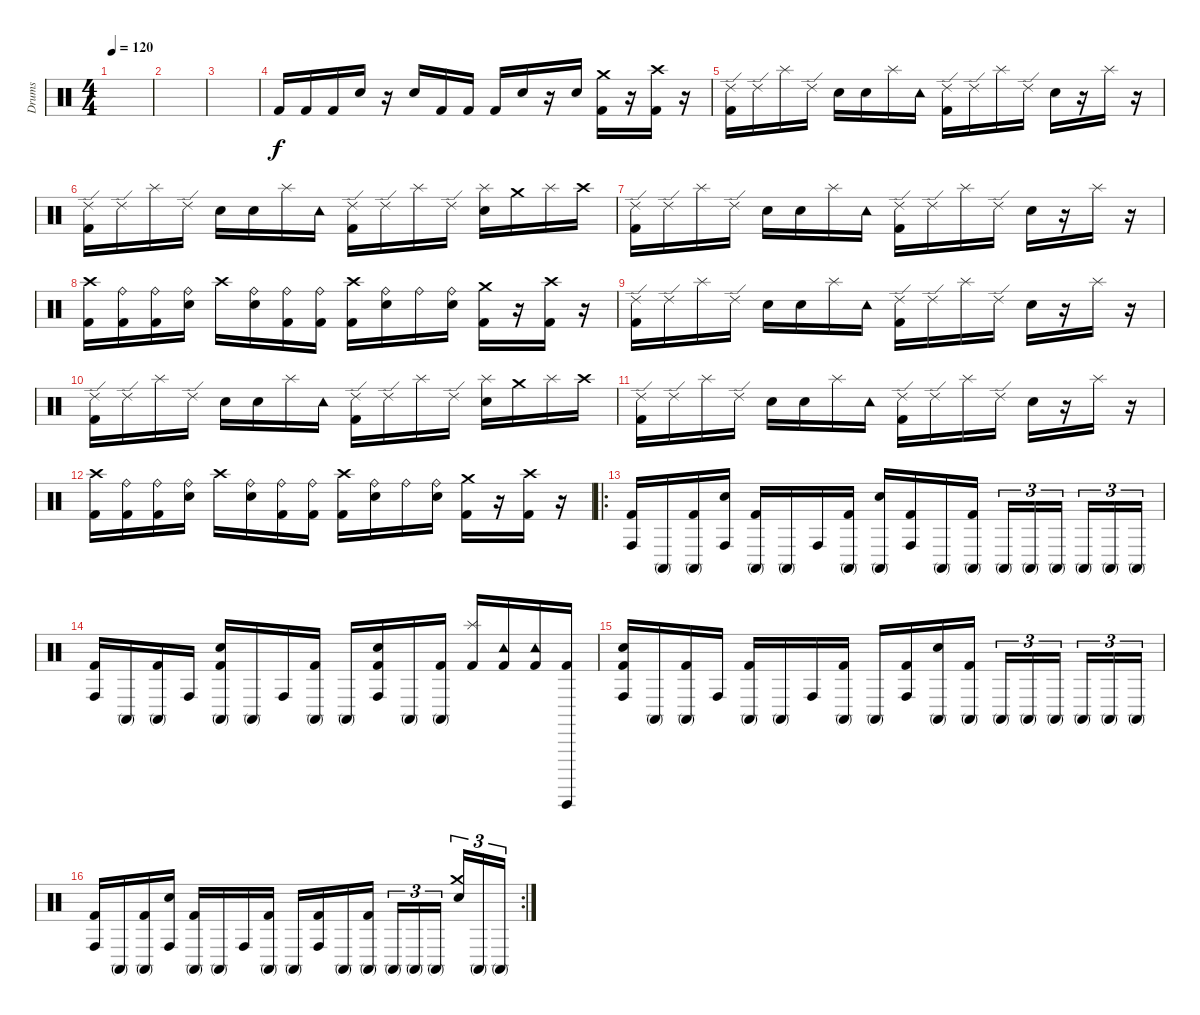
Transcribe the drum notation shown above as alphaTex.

\track ("Drums" "Drums") {instrument percussion}
\staff {score}
\articulation defaults
\ts (4 4)
\tempo 120
\clef neutral
\ks c
|
|
|
"Kick (hit) 2".16 "Kick (hit) 2".16 "Kick (hit) 2".16 "Snare (hit) 2".16 r.16 "Snare (hit) 2".16 "Kick (hit) 2".16 "Kick (hit) 2".16 "Kick (hit) 2".16 "Snare (hit) 2".16 r.16 "Snare (hit) 2".16 ("Crash medium (hit)" "Kick (hit) 2").16 r.16 ("Crash high (hit)" "Kick (hit) 2").16 r.16 |
("Ride (edge) 2" "Kick (hit) 2").16 "Ride (edge) 2".16 "Splash (hit)".16 "Ride (edge) 2".16 "Snare (hit) 2".16 "Snare (hit) 2".16 "Splash (hit)".16 "Tambourine (hit)".16 ("Ride (edge) 2" "Kick (hit) 2").16 "Ride (edge) 2".16 "Splash (hit)".16 "Ride (edge) 2".16 "Snare (hit) 2".16 r.16 "Splash (hit)".16 r.16 |
("Ride (edge) 2" "Kick (hit) 2").16 "Ride (edge) 2".16 "Splash (hit)".16 "Ride (edge) 2".16 "Snare (hit) 2".16 "Snare (hit) 2".16 "Splash (hit)".16 "Tambourine (hit)".16 ("Ride (edge) 2" "Kick (hit) 2").16 "Ride (edge) 2".16 "Splash (hit)".16 "Ride (edge) 2".16 ("Splash (hit)" "Snare (hit) 2").16 "Crash medium (hit)".16 "Splash (hit)".16 "Crash high (hit)".16 |
("Ride (edge) 2" "Kick (hit) 2").16 "Ride (edge) 2".16 "Splash (hit)".16 "Ride (edge) 2".16 "Snare (hit) 2".16 "Snare (hit) 2".16 "Splash (hit)".16 "Tambourine (hit)".16 ("Ride (edge) 2" "Kick (hit) 2").16 "Ride (edge) 2".16 "Splash (hit)".16 "Ride (edge) 2".16 "Snare (hit) 2".16 r.16 "Splash (hit)".16 r.16 |
("Crash high (hit)" "Kick (hit) 2").16 ("Ride (bell)" "Kick (hit) 2").16 ("Ride (bell)" "Kick (hit) 2").16 ("Ride (bell)" "Snare (hit) 2").16 "Crash high (hit)".16 ("Ride (bell)" "Snare (hit) 2").16 ("Ride (bell)" "Kick (hit) 2").16 ("Ride (bell)" "Kick (hit) 2").16 ("Crash high (hit)" "Kick (hit) 2").16 ("Ride (bell)" "Snare (hit) 2").16 "Ride (bell)".16 ("Ride (bell)" "Snare (hit) 2").16 ("Crash medium (hit)" "Kick (hit) 2").16 r.16 ("Crash high (hit)" "Kick (hit) 2").16 r.16 |
("Ride (edge) 2" "Kick (hit) 2").16 "Ride (edge) 2".16 "Splash (hit)".16 "Ride (edge) 2".16 "Snare (hit) 2".16 "Snare (hit) 2".16 "Splash (hit)".16 "Tambourine (hit)".16 ("Ride (edge) 2" "Kick (hit) 2").16 "Ride (edge) 2".16 "Splash (hit)".16 "Ride (edge) 2".16 "Snare (hit) 2".16 r.16 "Splash (hit)".16 r.16 |
("Ride (edge) 2" "Kick (hit) 2").16 "Ride (edge) 2".16 "Splash (hit)".16 "Ride (edge) 2".16 "Snare (hit) 2".16 "Snare (hit) 2".16 "Splash (hit)".16 "Tambourine (hit)".16 ("Ride (edge) 2" "Kick (hit) 2").16 "Ride (edge) 2".16 "Splash (hit)".16 "Ride (edge) 2".16 ("Splash (hit)" "Snare (hit) 2").16 "Crash medium (hit)".16 "Splash (hit)".16 "Crash high (hit)".16 |
("Ride (edge) 2" "Kick (hit) 2").16 "Ride (edge) 2".16 "Splash (hit)".16 "Ride (edge) 2".16 "Snare (hit) 2".16 "Snare (hit) 2".16 "Splash (hit)".16 "Tambourine (hit)".16 ("Ride (edge) 2" "Kick (hit) 2").16 "Ride (edge) 2".16 "Splash (hit)".16 "Ride (edge) 2".16 "Snare (hit) 2".16 r.16 "Splash (hit)".16 r.16 |
("Crash high (hit)" "Kick (hit) 2").16 ("Ride (bell)" "Kick (hit) 2").16 ("Ride (bell)" "Kick (hit) 2").16 ("Ride (bell)" "Snare (hit) 2").16 "Crash high (hit)".16 ("Ride (bell)" "Snare (hit) 2").16 ("Ride (bell)" "Kick (hit) 2").16 ("Ride (bell)" "Kick (hit) 2").16 ("Crash high (hit)" "Kick (hit) 2").16 ("Ride (bell)" "Snare (hit) 2").16 "Ride (bell)".16 ("Ride (bell)" "Snare (hit) 2").16 ("Crash medium (hit)" "Kick (hit) 2").16 r.16 ("Crash high (hit)" "Kick (hit) 2").16 r.16 |
\ro
("Conga high (hit)" "Kick (hit) 2").16 "Conga high (mute)".16 ("Conga high (mute)" "Kick (hit) 2").16 ("Conga high (hit)" "Snare (hit) 2").16 ("Conga high (mute)" "Kick (hit) 2").16 "Conga high (mute)".16 "Conga high (hit)".16 ("Conga high (mute)" "Kick (hit) 2").16 ("Conga high (mute)" "Snare (hit) 2").16 ("Conga high (hit)" "Kick (hit) 2").16 "Conga high (mute)".16 ("Conga high (mute)" "Kick (hit) 2").16 "Conga high (mute)".16{tu (3 2)} "Conga high (mute)".16{tu (3 2)} "Conga high (mute)".16{tu (3 2)} "Conga high (mute)".16{tu (3 2)} "Conga high (mute)".16{tu (3 2)} "Conga high (mute)".16{tu (3 2)} |
("Conga high (hit)" "Kick (hit) 2").16 "Conga high (mute)".16 ("Conga high (mute)" "Kick (hit) 2").16 "Conga high (hit)".16 ("Conga high (mute)" "Snare (hit) 2" "Kick (hit) 2").16 "Conga high (mute)".16 "Conga high (hit)".16 ("Conga high (mute)" "Kick (hit) 2").16 "Conga high (mute)".16 ("Conga high (hit)" "Snare (hit) 2" "Kick (hit) 2").16 "Conga high (mute)".16 ("Conga high (mute)" "Kick (hit) 2").16 ("Splash (hit)" "Kick (hit) 2").16 ("Tambourine (hit)" "Kick (hit) 2").16 ("Tambourine (hit)" "Kick (hit) 2").16 ("Guiro (hit)" "Kick (hit) 2").16 |
("Conga high (hit)" "Snare (hit) 2" "Kick (hit) 2").16 "Conga high (mute)".16 ("Conga high (mute)" "Kick (hit) 2").16 "Conga high (hit)".16 ("Conga high (mute)" "Kick (hit) 2").16 "Conga high (mute)".16 "Conga high (hit)".16 ("Conga high (mute)" "Kick (hit) 2").16 "Conga high (mute)".16 ("Conga high (hit)" "Kick (hit) 2").16 ("Conga high (mute)" "Snare (hit) 2").16 ("Conga high (mute)" "Kick (hit) 2").16 "Conga high (mute)".16{tu (3 2)} "Conga high (mute)".16{tu (3 2)} "Conga high (mute)".16{tu (3 2)} "Conga high (mute)".16{tu (3 2)} "Conga high (mute)".16{tu (3 2)} "Conga high (mute)".16{tu (3 2)} |
\rc 2
("Conga high (hit)" "Kick (hit) 2").16 "Conga high (mute)".16 ("Conga high (mute)" "Kick (hit) 2").16 ("Conga high (hit)" "Snare (hit) 2").16 ("Conga high (mute)" "Kick (hit) 2").16 "Conga high (mute)".16 "Conga high (hit)".16 ("Conga high (mute)" "Kick (hit) 2").16 "Conga high (mute)".16 ("Conga high (hit)" "Kick (hit) 2").16 "Conga high (mute)".16 ("Conga high (mute)" "Kick (hit) 2").16 "Conga high (mute)".16{tu (3 2)} "Conga high (mute)".16{tu (3 2)} "Conga high (mute)".16{tu (3 2)} ("Crash medium (hit)" "Snare (hit) 2").16{tu (3 2)} "Conga high (mute)".16{tu (3 2)} "Conga high (mute)".16{tu (3 2)}
